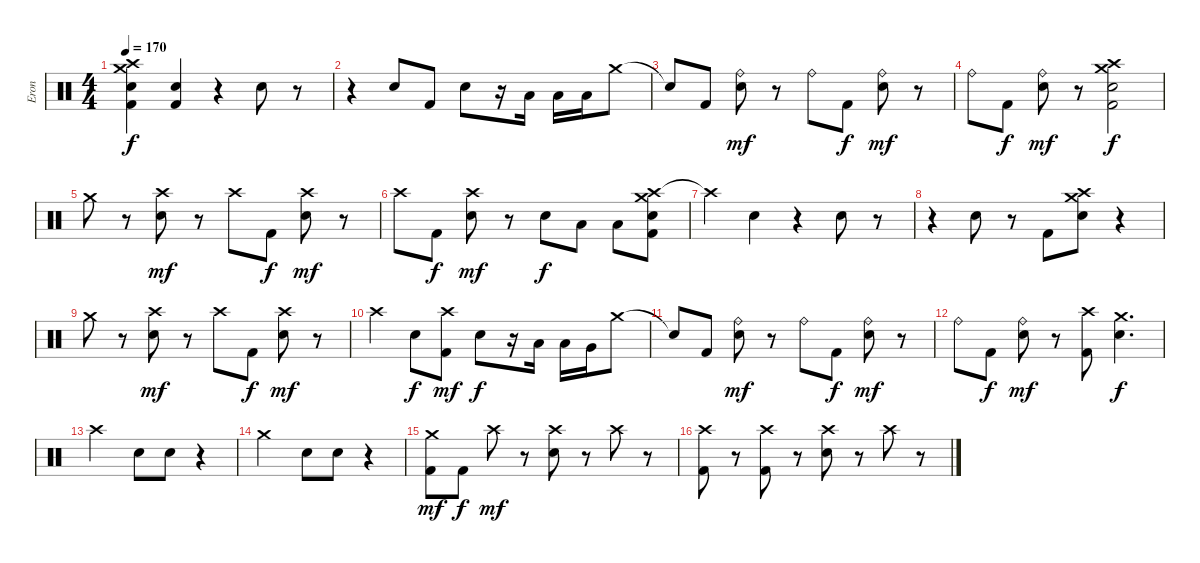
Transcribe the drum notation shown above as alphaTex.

\track ("Eron" "Eron") {instrument percussion}
\staff {score}
\articulation defaults
\ts (4 4)
\tempo 170
\clef neutral
\ks c
("Crash medium (hit)" "Crash high (hit)" "Snare (hit) 2" "Kick (hit) 2").4{dy f} ("Snare (hit) 2" "Kick (hit) 2").4 r.4 "Snare (hit) 2".8 r.8 |
r.4 "Snare (hit) 2".8 "Kick (hit) 2".8 "Snare (hit) 2".8 r.16 "Low Tom (hit)".16 "Low Tom (hit)".16 "Low Floor Tom (hit)".16 "Crash medium (hit)".8 |
"Snare (hit)"{t}.8 "Kick (hit) 2".8 ("Ride (bell)" "Snare (hit) 2").8{dy mf} r.8 "Ride (bell)".8 "Kick (hit) 2".8{dy f} ("Ride (bell)" "Snare (hit) 2").8{dy mf} r.8 |
"Ride (bell)".8 "Kick (hit) 2".8{dy f} ("Ride (bell)" "Snare (hit) 2").8{dy mf} r.8 ("Crash high (hit)" "Crash medium (hit)" "Snare (hit) 2" "Kick (hit) 2").2{dy f} |
"Crash medium (hit)".8 r.8 ("Crash high (hit)" "Snare (hit) 2").8{dy mf} r.8 "Crash high (hit)".8 "Kick (hit) 2".8{dy f} ("Crash high (hit)" "Snare (hit) 2").8{dy mf} r.8 |
"Crash high (hit)".8 "Kick (hit) 2".8{dy f} ("Crash high (hit)" "Snare (hit) 2").8{dy mf} r.8 "Snare (hit) 2".8{dy f} "Low Tom (hit)".8 "Low Floor Tom (hit)".8 ("Crash high (hit)" "Crash medium (hit)" "Snare (hit) 2" "Kick (hit) 2").8 |
"Crash high (hit)"{t}.4 "Snare (hit) 2".4 r.4 "Snare (hit) 2".8 r.8 |
r.4 "Snare (hit) 2".8 r.8 "Kick (hit) 2".8 ("Crash medium (hit)" "Crash high (hit)" "Snare (hit) 2").8 r.4 |
"Crash medium (hit)".8 r.8 ("Crash high (hit)" "Snare (hit) 2").8{dy mf} r.8 "Crash high (hit)".8 "Kick (hit) 2".8{dy f} ("Crash high (hit)" "Snare (hit) 2").8{dy mf} r.8 |
"Crash high (hit)".4 "Snare (hit) 2".8{dy f} ("Crash high (hit)" "Kick (hit) 2").8{dy mf} "Snare (hit) 2".8{dy f} r.16 "Low Tom (hit)".16 "Low Tom (hit)".16 "Very Low Tom (hit)".16 "Crash medium (hit)".8 |
"Snare (hit)"{t}.8 "Kick (hit) 2".8 ("Ride (bell)" "Snare (hit) 2").8{dy mf} r.8 "Ride (bell)".8 "Kick (hit) 2".8{dy f} ("Ride (bell)" "Snare (hit) 2").8{dy mf} r.8 |
"Ride (bell)".8 "Kick (hit) 2".8{dy f} ("Ride (bell)" "Snare (hit) 2").8{dy mf} r.8 ("Crash high (hit)" "Kick (hit) 2").8 ("Crash medium (hit)" "Snare (hit) 2").4{d dy f} |
"Crash high (hit)".2 "Snare (hit) 2".8 "Snare (hit) 2".8 r.4 |
"Crash medium (hit)".2 "Snare (hit) 2".8 "Snare (hit) 2".8 r.4 |
("Crash medium (hit)" "Kick (hit) 2").8{dy mf} "Kick (hit) 2".8{dy f} "Crash high (hit)".8{dy mf} r.8 ("Crash high (hit)" "Snare (hit) 2").8 r.8 "Crash high (hit)".8 r.8 |
("Crash high (hit)" "Kick (hit) 2").8 r.8 ("Crash high (hit)" "Kick (hit) 2").8 r.8 ("Crash high (hit)" "Snare (hit) 2").8 r.8 "Crash high (hit)".8 r.8
